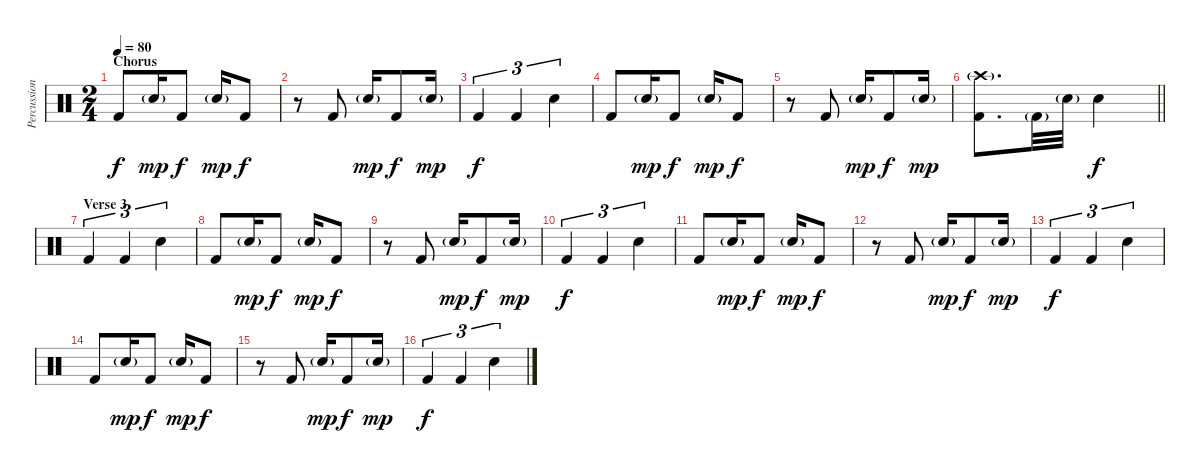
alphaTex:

\track ("Percussion" "Percussion") {solo instrument percussion}
\staff {score}
\articulation defaults
\ts (2 4)
\section ("" "Chorus")
\tempo 80
\clef neutral
\ks c "Kick (hit) 2".8{dy f} "Snare (hit) 2"{g}.16{dy mp} "Kick (hit) 2".8{dy f} "Snare (hit) 2"{g}.16{dy mp} "Kick (hit) 2".8{dy f}
|
r.8 "Kick (hit) 2".8 "Snare (hit) 2"{g}.16{dy mp} "Kick (hit) 2".8{dy f} "Snare (hit) 2"{g}.16{dy mp} |
"Kick (hit) 2".4{tu (3 2) dy f} "Kick (hit) 2".4{tu (3 2)} "Snare (hit) 2".4{tu (3 2)} |
"Kick (hit) 2".8 "Snare (hit) 2"{g}.16{dy mp} "Kick (hit) 2".8{dy f} "Snare (hit) 2"{g}.16{dy mp} "Kick (hit) 2".8{dy f} |
r.8 "Kick (hit) 2".8 "Snare (hit) 2"{g}.16{dy mp} "Kick (hit) 2".8{dy f} "Snare (hit) 2"{g}.16{dy mp} |
\barLineRight lightlight
("Crash high (hit)"{g} "Kick (hit) 2").8{d} "Kick (hit) 2"{g}.32 "Snare (hit) 2"{g}.32 "Snare (hit) 2".4{dy f} |
\section ("" "Verse 3")
"Kick (hit) 2".4{tu (3 2)} "Kick (hit) 2".4{tu (3 2)} "Snare (hit) 2".4{tu (3 2)} |
"Kick (hit) 2".8 "Snare (hit) 2"{g}.16{dy mp} "Kick (hit) 2".8{dy f} "Snare (hit) 2"{g}.16{dy mp} "Kick (hit) 2".8{dy f} |
r.8 "Kick (hit) 2".8 "Snare (hit) 2"{g}.16{dy mp} "Kick (hit) 2".8{dy f} "Snare (hit) 2"{g}.16{dy mp} |
"Kick (hit) 2".4{tu (3 2) dy f} "Kick (hit) 2".4{tu (3 2)} "Snare (hit) 2".4{tu (3 2)} |
"Kick (hit) 2".8 "Snare (hit) 2"{g}.16{dy mp} "Kick (hit) 2".8{dy f} "Snare (hit) 2"{g}.16{dy mp} "Kick (hit) 2".8{dy f} |
r.8 "Kick (hit) 2".8 "Snare (hit) 2"{g}.16{dy mp} "Kick (hit) 2".8{dy f} "Snare (hit) 2"{g}.16{dy mp} |
"Kick (hit) 2".4{tu (3 2) dy f} "Kick (hit) 2".4{tu (3 2)} "Snare (hit) 2".4{tu (3 2)} |
"Kick (hit) 2".8 "Snare (hit) 2"{g}.16{dy mp} "Kick (hit) 2".8{dy f} "Snare (hit) 2"{g}.16{dy mp} "Kick (hit) 2".8{dy f} |
r.8 "Kick (hit) 2".8 "Snare (hit) 2"{g}.16{dy mp} "Kick (hit) 2".8{dy f} "Snare (hit) 2"{g}.16{dy mp} |
"Kick (hit) 2".4{tu (3 2) dy f} "Kick (hit) 2".4{tu (3 2)} "Snare (hit) 2".4{tu (3 2)}
